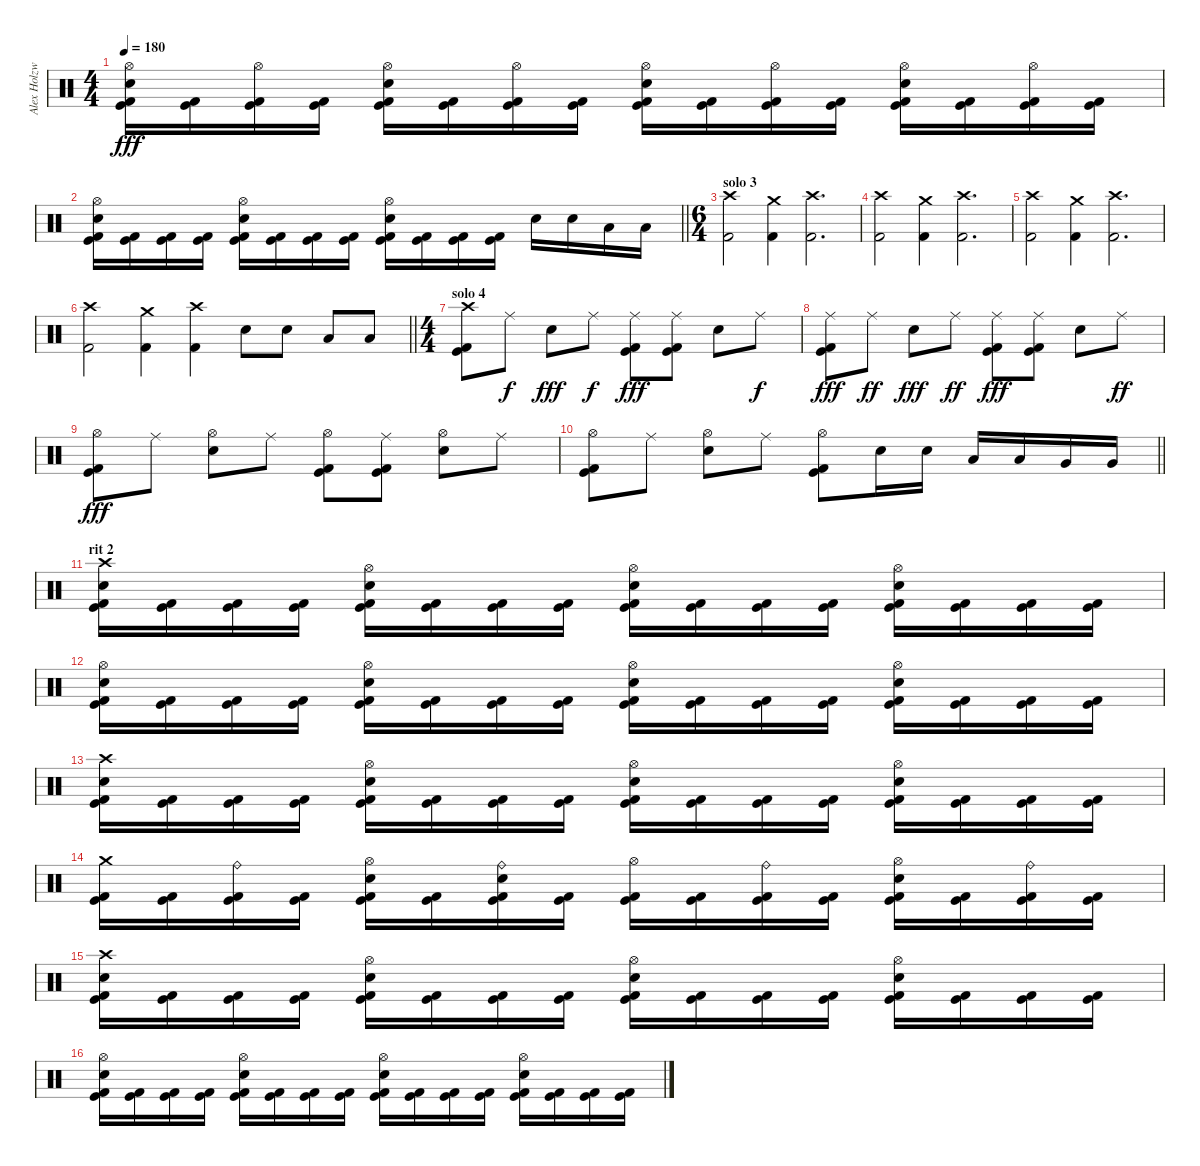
\track ("Alex Holzwarth" "Alex Holzw") {instrument percussion}
\staff {score}
\articulation defaults
\ts (4 4)
\tempo 180
\clef neutral
\ks c
("Hi-Hat (open)" "Snare (hit) 2" "Kick (hit)" "Kick (hit) 2").16{dy fff} ("Kick (hit)" "Kick (hit) 2").16 ("Hi-Hat (open)" "Kick (hit)" "Kick (hit) 2").16 ("Kick (hit)" "Kick (hit) 2").16 ("Hi-Hat (open)" "Snare (hit) 2" "Kick (hit)" "Kick (hit) 2").16 ("Kick (hit)" "Kick (hit) 2").16 ("Hi-Hat (open)" "Kick (hit)" "Kick (hit) 2").16 ("Kick (hit)" "Kick (hit) 2").16 ("Hi-Hat (open)" "Snare (hit) 2" "Kick (hit)" "Kick (hit) 2").16 ("Kick (hit)" "Kick (hit) 2").16 ("Hi-Hat (open)" "Kick (hit)" "Kick (hit) 2").16 ("Kick (hit)" "Kick (hit) 2").16 ("Hi-Hat (open)" "Snare (hit) 2" "Kick (hit)" "Kick (hit) 2").16 ("Kick (hit)" "Kick (hit) 2").16 ("Hi-Hat (open)" "Kick (hit)" "Kick (hit) 2").16 ("Kick (hit)" "Kick (hit) 2").16 |
\barLineRight lightlight
("Hi-Hat (open)" "Snare (hit) 2" "Kick (hit)" "Kick (hit) 2").16 ("Kick (hit)" "Kick (hit) 2").16 ("Kick (hit)" "Kick (hit) 2").16 ("Kick (hit)" "Kick (hit) 2").16 ("Hi-Hat (open)" "Snare (hit) 2" "Kick (hit)" "Kick (hit) 2").16 ("Kick (hit)" "Kick (hit) 2").16 ("Kick (hit)" "Kick (hit) 2").16 ("Kick (hit)" "Kick (hit) 2").16 ("Hi-Hat (open)" "Snare (hit) 2" "Kick (hit)" "Kick (hit) 2").16 ("Kick (hit)" "Kick (hit) 2").16 ("Kick (hit)" "Kick (hit) 2").16 ("Kick (hit)" "Kick (hit) 2").16 "Snare (hit) 2".16 "Snare (hit) 2".16 "Low Tom (hit)".16 "Low Tom (hit)".16 |
\ts (6 4)
\section ("" "solo 3")
("Crash high (hit)" "Kick (hit) 2").2 ("Crash medium (hit)" "Kick (hit) 2").4 ("Crash high (hit)" "Kick (hit) 2").2{d} |
("Crash high (hit)" "Kick (hit) 2").2 ("Crash medium (hit)" "Kick (hit) 2").4 ("Crash high (hit)" "Kick (hit) 2").2{d} |
("Crash high (hit)" "Kick (hit) 2").2 ("Crash medium (hit)" "Kick (hit) 2").4 ("Crash high (hit)" "Kick (hit) 2").2{d} |
\barLineRight lightlight
("Crash high (hit)" "Kick (hit) 2").2 ("Crash medium (hit)" "Kick (hit) 2").4 ("Crash high (hit)" "Kick (hit) 2").4 "Snare (hit) 2".8 "Snare (hit) 2".8 "Low Tom (hit)".8 "Low Tom (hit)".8 |
\ts (4 4)
\section ("" "solo 4")
("Crash high (hit)" "Kick (hit)" "Kick (hit) 2").8 "Ride (middle)".8{dy f} "Snare (hit) 2".8{dy fff} "Ride (middle)".8{dy f} ("Ride (middle)" "Kick (hit)" "Kick (hit) 2").8{dy fff} ("Ride (middle)" "Kick (hit)" "Kick (hit) 2").8 "Snare (hit) 2".8 "Ride (middle)".8{dy f} |
("Ride (middle)" "Kick (hit)" "Kick (hit) 2").8{dy fff} "Ride (middle)".8{dy ff} "Snare (hit) 2".8{dy fff} "Ride (middle)".8{dy ff} ("Ride (middle)" "Kick (hit)" "Kick (hit) 2").8{dy fff} ("Ride (middle)" "Kick (hit)" "Kick (hit) 2").8 "Snare (hit) 2".8 "Ride (middle)".8{dy ff} |
("Hi-Hat (open)" "Kick (hit)" "Kick (hit) 2").8{dy fff} "Ride (middle)".8 ("Hi-Hat (open)" "Snare (hit) 2").8 "Ride (middle)".8 ("Hi-Hat (open)" "Kick (hit)" "Kick (hit) 2").8 ("Ride (middle)" "Kick (hit)" "Kick (hit) 2").8 ("Hi-Hat (open)" "Snare (hit) 2").8 "Ride (middle)".8 |
\barLineRight lightlight
("Hi-Hat (open)" "Kick (hit)" "Kick (hit) 2").8 "Ride (middle)".8 ("Hi-Hat (open)" "Snare (hit) 2").8 "Ride (middle)".8 ("Hi-Hat (open)" "Kick (hit)" "Kick (hit) 2").8 "Snare (hit) 2".16 "Snare (hit) 2".16 "Low Tom (hit)".16 "Low Tom (hit)".16 "Very Low Tom (hit)".16 "Very Low Tom (hit)".16 |
\section ("" "rit 2")
("Crash high (hit)" "Snare (hit) 2" "Kick (hit)" "Kick (hit) 2").16 ("Kick (hit)" "Kick (hit) 2").16 ("Kick (hit)" "Kick (hit) 2").16 ("Kick (hit)" "Kick (hit) 2").16 ("Hi-Hat (open)" "Snare (hit) 2" "Kick (hit)" "Kick (hit) 2").16 ("Kick (hit)" "Kick (hit) 2").16 ("Kick (hit)" "Kick (hit) 2").16 ("Kick (hit)" "Kick (hit) 2").16 ("Hi-Hat (open)" "Snare (hit) 2" "Kick (hit)" "Kick (hit) 2").16 ("Kick (hit)" "Kick (hit) 2").16 ("Kick (hit)" "Kick (hit) 2").16 ("Kick (hit)" "Kick (hit) 2").16 ("Hi-Hat (open)" "Snare (hit) 2" "Kick (hit)" "Kick (hit) 2").16 ("Kick (hit)" "Kick (hit) 2").16 ("Kick (hit)" "Kick (hit) 2").16 ("Kick (hit)" "Kick (hit) 2").16 |
("Hi-Hat (open)" "Snare (hit) 2" "Kick (hit)" "Kick (hit) 2").16 ("Kick (hit)" "Kick (hit) 2").16 ("Kick (hit)" "Kick (hit) 2").16 ("Kick (hit)" "Kick (hit) 2").16 ("Hi-Hat (open)" "Snare (hit) 2" "Kick (hit)" "Kick (hit) 2").16 ("Kick (hit)" "Kick (hit) 2").16 ("Kick (hit)" "Kick (hit) 2").16 ("Kick (hit)" "Kick (hit) 2").16 ("Hi-Hat (open)" "Snare (hit) 2" "Kick (hit)" "Kick (hit) 2").16 ("Kick (hit)" "Kick (hit) 2").16 ("Kick (hit)" "Kick (hit) 2").16 ("Kick (hit)" "Kick (hit) 2").16 ("Hi-Hat (open)" "Snare (hit) 2" "Kick (hit)" "Kick (hit) 2").16 ("Kick (hit)" "Kick (hit) 2").16 ("Kick (hit)" "Kick (hit) 2").16 ("Kick (hit)" "Kick (hit) 2").16 |
("Crash high (hit)" "Snare (hit) 2" "Kick (hit)" "Kick (hit) 2").16 ("Kick (hit)" "Kick (hit) 2").16 ("Kick (hit)" "Kick (hit) 2").16 ("Kick (hit)" "Kick (hit) 2").16 ("Hi-Hat (open)" "Snare (hit) 2" "Kick (hit)" "Kick (hit) 2").16 ("Kick (hit)" "Kick (hit) 2").16 ("Kick (hit)" "Kick (hit) 2").16 ("Kick (hit)" "Kick (hit) 2").16 ("Hi-Hat (open)" "Snare (hit) 2" "Kick (hit)" "Kick (hit) 2").16 ("Kick (hit)" "Kick (hit) 2").16 ("Kick (hit)" "Kick (hit) 2").16 ("Kick (hit)" "Kick (hit) 2").16 ("Hi-Hat (open)" "Snare (hit) 2" "Kick (hit)" "Kick (hit) 2").16 ("Kick (hit)" "Kick (hit) 2").16 ("Kick (hit)" "Kick (hit) 2").16 ("Kick (hit)" "Kick (hit) 2").16 |
("Crash medium (hit)" "Kick (hit)" "Kick (hit) 2").16 ("Kick (hit)" "Kick (hit) 2").16 ("Ride (bell)" "Kick (hit)" "Kick (hit) 2").16 ("Kick (hit)" "Kick (hit) 2").16 ("Hi-Hat (open)" "Snare (hit) 2" "Kick (hit)" "Kick (hit) 2").16 ("Kick (hit)" "Kick (hit) 2").16 ("Ride (bell)" "Snare (hit) 2" "Kick (hit)" "Kick (hit) 2").16 ("Kick (hit)" "Kick (hit) 2").16 ("Hi-Hat (open)" "Kick (hit)" "Kick (hit) 2").16 ("Kick (hit)" "Kick (hit) 2").16 ("Ride (bell)" "Kick (hit)" "Kick (hit) 2").16 ("Kick (hit)" "Kick (hit) 2").16 ("Hi-Hat (open)" "Snare (hit) 2" "Kick (hit)" "Kick (hit) 2").16 ("Kick (hit)" "Kick (hit) 2").16 ("Ride (bell)" "Kick (hit)" "Kick (hit) 2").16 ("Kick (hit)" "Kick (hit) 2").16 |
("Crash high (hit)" "Snare (hit) 2" "Kick (hit)" "Kick (hit) 2").16 ("Kick (hit)" "Kick (hit) 2").16 ("Kick (hit)" "Kick (hit) 2").16 ("Kick (hit)" "Kick (hit) 2").16 ("Hi-Hat (open)" "Snare (hit) 2" "Kick (hit)" "Kick (hit) 2").16 ("Kick (hit)" "Kick (hit) 2").16 ("Kick (hit)" "Kick (hit) 2").16 ("Kick (hit)" "Kick (hit) 2").16 ("Hi-Hat (open)" "Snare (hit) 2" "Kick (hit)" "Kick (hit) 2").16 ("Kick (hit)" "Kick (hit) 2").16 ("Kick (hit)" "Kick (hit) 2").16 ("Kick (hit)" "Kick (hit) 2").16 ("Hi-Hat (open)" "Snare (hit) 2" "Kick (hit)" "Kick (hit) 2").16 ("Kick (hit)" "Kick (hit) 2").16 ("Kick (hit)" "Kick (hit) 2").16 ("Kick (hit)" "Kick (hit) 2").16 |
("Hi-Hat (open)" "Snare (hit) 2" "Kick (hit)" "Kick (hit) 2").16 ("Kick (hit)" "Kick (hit) 2").16 ("Kick (hit)" "Kick (hit) 2").16 ("Kick (hit)" "Kick (hit) 2").16 ("Hi-Hat (open)" "Snare (hit) 2" "Kick (hit)" "Kick (hit) 2").16 ("Kick (hit)" "Kick (hit) 2").16 ("Kick (hit)" "Kick (hit) 2").16 ("Kick (hit)" "Kick (hit) 2").16 ("Hi-Hat (open)" "Snare (hit) 2" "Kick (hit)" "Kick (hit) 2").16 ("Kick (hit)" "Kick (hit) 2").16 ("Kick (hit)" "Kick (hit) 2").16 ("Kick (hit)" "Kick (hit) 2").16 ("Hi-Hat (open)" "Snare (hit) 2" "Kick (hit)" "Kick (hit) 2").16 ("Kick (hit)" "Kick (hit) 2").16 ("Kick (hit)" "Kick (hit) 2").16 ("Kick (hit)" "Kick (hit) 2").16
